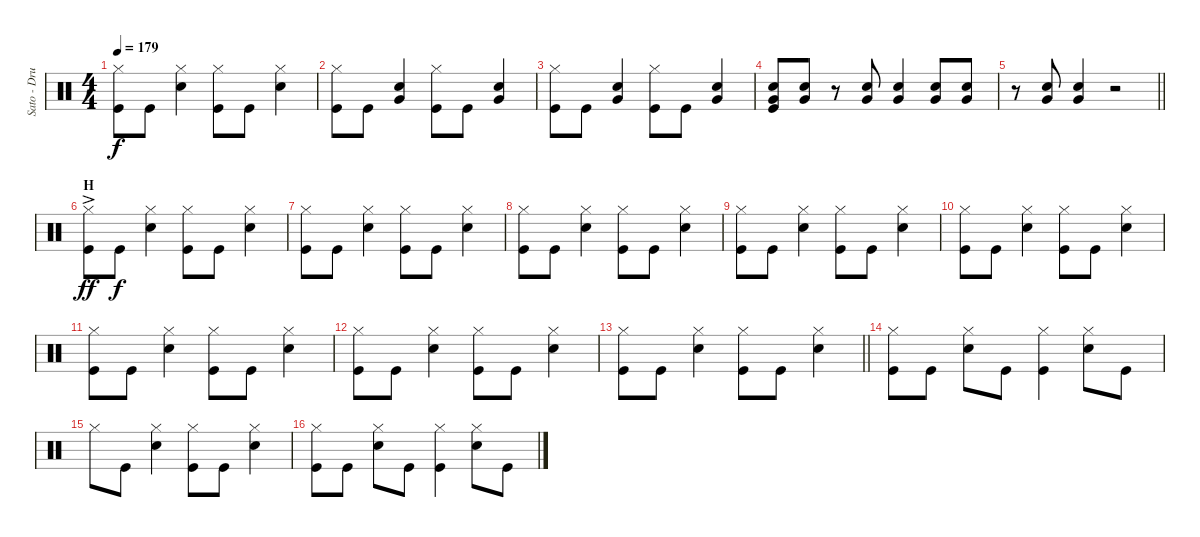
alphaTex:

\track ("Sato - Drums" "Sato - Dru") {instrument percussion}
\staff {score}
\articulation defaults
\ts (4 4)
\tempo 179
\clef neutral
\ks c
("Hi-Hat (closed)" "Kick (hit)").8{dy f} "Kick (hit)".8 ("Hi-Hat (closed)" "Electric Snare (hit)").4 ("Hi-Hat (closed)" "Kick (hit)").8 "Kick (hit)".8 ("Hi-Hat (closed)" "Electric Snare (hit)").4 |
("Hi-Hat (closed)" "Kick (hit)").8 "Kick (hit)".8 ("Electric Snare (hit)" "Very Low Tom (hit)").4 ("Hi-Hat (closed)" "Kick (hit)").8 "Kick (hit)".8 ("Electric Snare (hit)" "Very Low Tom (hit)").4 |
("Hi-Hat (closed)" "Kick (hit)").8 "Kick (hit)".8 ("Electric Snare (hit)" "Very Low Tom (hit)").4 ("Hi-Hat (closed)" "Kick (hit)").8 "Kick (hit)".8 ("Electric Snare (hit)" "Very Low Tom (hit)").4 |
("Electric Snare (hit)" "Very Low Tom (hit)" "Kick (hit)").8 ("Electric Snare (hit)" "Very Low Tom (hit)").8 r.8 ("Electric Snare (hit)" "Very Low Tom (hit)").8 ("Electric Snare (hit)" "Very Low Tom (hit)").4 ("Electric Snare (hit)" "Very Low Tom (hit)").8 ("Electric Snare (hit)" "Very Low Tom (hit)").8 |
\barLineRight lightlight
r.8 ("Electric Snare (hit)" "Very Low Tom (hit)").8 ("Electric Snare (hit)" "Very Low Tom (hit)").4 r.2 |
\section ("" "H")
("Hi-Hat (closed)"{ac} "Kick (hit)"{ac}).8{dy ff} "Kick (hit)".8{dy f} ("Hi-Hat (closed)" "Electric Snare (hit)").4 ("Hi-Hat (closed)" "Kick (hit)").8 "Kick (hit)".8 ("Hi-Hat (closed)" "Electric Snare (hit)").4 |
("Hi-Hat (closed)" "Kick (hit)").8 "Kick (hit)".8 ("Hi-Hat (closed)" "Electric Snare (hit)").4 ("Hi-Hat (closed)" "Kick (hit)").8 "Kick (hit)".8 ("Hi-Hat (closed)" "Electric Snare (hit)").4 |
("Hi-Hat (closed)" "Kick (hit)").8 "Kick (hit)".8 ("Hi-Hat (closed)" "Electric Snare (hit)").4 ("Hi-Hat (closed)" "Kick (hit)").8 "Kick (hit)".8 ("Hi-Hat (closed)" "Electric Snare (hit)").4 |
("Hi-Hat (closed)" "Kick (hit)").8 "Kick (hit)".8 ("Hi-Hat (closed)" "Electric Snare (hit)").4 ("Hi-Hat (closed)" "Kick (hit)").8 "Kick (hit)".8 ("Hi-Hat (closed)" "Electric Snare (hit)").4 |
("Hi-Hat (closed)" "Kick (hit)").8 "Kick (hit)".8 ("Hi-Hat (closed)" "Electric Snare (hit)").4 ("Hi-Hat (closed)" "Kick (hit)").8 "Kick (hit)".8 ("Hi-Hat (closed)" "Electric Snare (hit)").4 |
("Hi-Hat (closed)" "Kick (hit)").8 "Kick (hit)".8 ("Hi-Hat (closed)" "Electric Snare (hit)").4 ("Hi-Hat (closed)" "Kick (hit)").8 "Kick (hit)".8 ("Hi-Hat (closed)" "Electric Snare (hit)").4 |
("Hi-Hat (closed)" "Kick (hit)").8 "Kick (hit)".8 ("Hi-Hat (closed)" "Electric Snare (hit)").4 ("Hi-Hat (closed)" "Kick (hit)").8 "Kick (hit)".8 ("Hi-Hat (closed)" "Electric Snare (hit)").4 |
\barLineRight lightlight
("Hi-Hat (closed)" "Kick (hit)").8 "Kick (hit)".8 ("Hi-Hat (closed)" "Electric Snare (hit)").4 ("Hi-Hat (closed)" "Kick (hit)").8 "Kick (hit)".8 ("Hi-Hat (closed)" "Electric Snare (hit)").4 |
("Hi-Hat (closed)" "Kick (hit)").8 "Kick (hit)".8 ("Hi-Hat (closed)" "Electric Snare (hit)").8 "Kick (hit)".8 ("Hi-Hat (closed)" "Kick (hit)").4 ("Hi-Hat (closed)" "Electric Snare (hit)").8 "Kick (hit)".8 |
"Hi-Hat (closed)".8 "Kick (hit)".8 ("Hi-Hat (closed)" "Electric Snare (hit)").4 ("Hi-Hat (closed)" "Kick (hit)").8 "Kick (hit)".8 ("Hi-Hat (closed)" "Electric Snare (hit)").4 |
("Hi-Hat (closed)" "Kick (hit)").8 "Kick (hit)".8 ("Hi-Hat (closed)" "Electric Snare (hit)").8 "Kick (hit)".8 ("Hi-Hat (closed)" "Kick (hit)").4 ("Hi-Hat (closed)" "Electric Snare (hit)").8 "Kick (hit)".8
